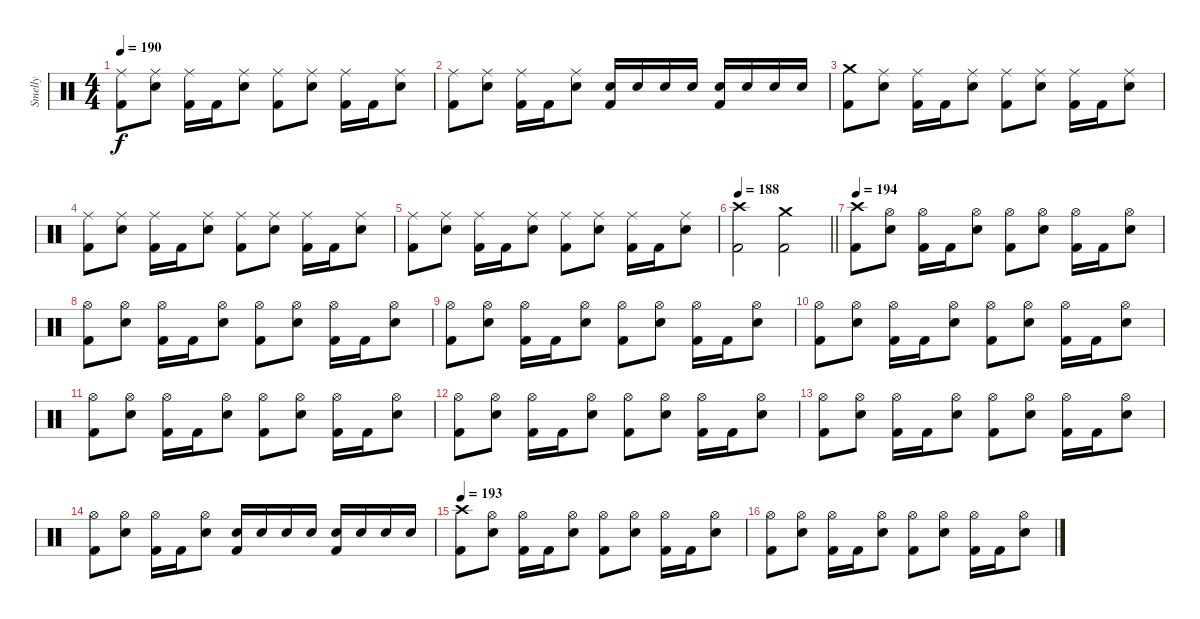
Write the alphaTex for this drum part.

\track ("Smelly" "Smelly") {instrument percussion}
\staff {score}
\articulation defaults
\ts (4 4)
\tempo 190
\clef neutral
\ks c
("Ride (middle)" "Kick (hit) 2").8{dy f} ("Ride (middle)" "Electric Snare (hit)").8 ("Ride (middle)" "Kick (hit) 2").16 "Kick (hit) 2".16 ("Ride (middle)" "Electric Snare (hit)").8 ("Ride (middle)" "Kick (hit) 2").8 ("Ride (middle)" "Electric Snare (hit)").8 ("Ride (middle)" "Kick (hit) 2").16 "Kick (hit) 2".16 ("Ride (middle)" "Electric Snare (hit)").8 |
("Ride (middle)" "Kick (hit) 2").8 ("Ride (middle)" "Electric Snare (hit)").8 ("Ride (middle)" "Kick (hit) 2").16 "Kick (hit) 2".16 ("Ride (middle)" "Electric Snare (hit)").8 ("Electric Snare (hit)" "Kick (hit) 2").16 "Electric Snare (hit)".16 "Electric Snare (hit)".16 "Electric Snare (hit)".16 ("Electric Snare (hit)" "Kick (hit) 2").16 "Electric Snare (hit)".16 "Electric Snare (hit)".16 "Electric Snare (hit)".16 |
("Crash medium (hit)" "Kick (hit) 2").8 ("Ride (middle)" "Electric Snare (hit)").8 ("Ride (middle)" "Kick (hit) 2").16 "Kick (hit) 2".16 ("Ride (middle)" "Electric Snare (hit)").8 ("Ride (middle)" "Kick (hit) 2").8 ("Ride (middle)" "Electric Snare (hit)").8 ("Ride (middle)" "Kick (hit) 2").16 "Kick (hit) 2".16 ("Ride (middle)" "Electric Snare (hit)").8 |
("Ride (middle)" "Kick (hit) 2").8 ("Ride (middle)" "Electric Snare (hit)").8 ("Ride (middle)" "Kick (hit) 2").16 "Kick (hit) 2".16 ("Ride (middle)" "Electric Snare (hit)").8 ("Ride (middle)" "Kick (hit) 2").8 ("Ride (middle)" "Electric Snare (hit)").8 ("Ride (middle)" "Kick (hit) 2").16 "Kick (hit) 2".16 ("Ride (middle)" "Electric Snare (hit)").8 |
("Ride (middle)" "Kick (hit) 2").8 ("Ride (middle)" "Electric Snare (hit)").8 ("Ride (middle)" "Kick (hit) 2").16 "Kick (hit) 2".16 ("Ride (middle)" "Electric Snare (hit)").8 ("Ride (middle)" "Kick (hit) 2").8 ("Ride (middle)" "Electric Snare (hit)").8 ("Ride (middle)" "Kick (hit) 2").16 "Kick (hit) 2".16 ("Ride (middle)" "Electric Snare (hit)").8 |
\tempo 188
\barLineRight lightlight
("Crash high (hit)" "Kick (hit) 2").2 ("Crash medium (hit)" "Kick (hit) 2").2 |
\section ("" "")
\tempo 194
("Crash high (hit)" "Kick (hit) 2").8 ("Hi-Hat (open)" "Electric Snare (hit)").8 ("Hi-Hat (open)" "Kick (hit) 2").16 "Kick (hit) 2".16 ("Hi-Hat (open)" "Electric Snare (hit)").8 ("Hi-Hat (open)" "Kick (hit) 2").8 ("Hi-Hat (open)" "Electric Snare (hit)").8 ("Hi-Hat (open)" "Kick (hit) 2").16 "Kick (hit) 2".16 ("Hi-Hat (open)" "Electric Snare (hit)").8 |
("Hi-Hat (open)" "Kick (hit) 2").8 ("Hi-Hat (open)" "Electric Snare (hit)").8 ("Hi-Hat (open)" "Kick (hit) 2").16 "Kick (hit) 2".16 ("Hi-Hat (open)" "Electric Snare (hit)").8 ("Hi-Hat (open)" "Kick (hit) 2").8 ("Hi-Hat (open)" "Electric Snare (hit)").8 ("Hi-Hat (open)" "Kick (hit) 2").16 "Kick (hit) 2".16 ("Hi-Hat (open)" "Electric Snare (hit)").8 |
("Hi-Hat (open)" "Kick (hit) 2").8 ("Hi-Hat (open)" "Electric Snare (hit)").8 ("Hi-Hat (open)" "Kick (hit) 2").16 "Kick (hit) 2".16 ("Hi-Hat (open)" "Electric Snare (hit)").8 ("Hi-Hat (open)" "Kick (hit) 2").8 ("Hi-Hat (open)" "Electric Snare (hit)").8 ("Hi-Hat (open)" "Kick (hit) 2").16 "Kick (hit) 2".16 ("Hi-Hat (open)" "Electric Snare (hit)").8 |
("Hi-Hat (open)" "Kick (hit) 2").8 ("Hi-Hat (open)" "Electric Snare (hit)").8 ("Hi-Hat (open)" "Kick (hit) 2").16 "Kick (hit) 2".16 ("Hi-Hat (open)" "Electric Snare (hit)").8 ("Hi-Hat (open)" "Kick (hit) 2").8 ("Hi-Hat (open)" "Electric Snare (hit)").8 ("Hi-Hat (open)" "Kick (hit) 2").16 "Kick (hit) 2".16 ("Hi-Hat (open)" "Electric Snare (hit)").8 |
("Hi-Hat (open)" "Kick (hit) 2").8 ("Hi-Hat (open)" "Electric Snare (hit)").8 ("Hi-Hat (open)" "Kick (hit) 2").16 "Kick (hit) 2".16 ("Hi-Hat (open)" "Electric Snare (hit)").8 ("Hi-Hat (open)" "Kick (hit) 2").8 ("Hi-Hat (open)" "Electric Snare (hit)").8 ("Hi-Hat (open)" "Kick (hit) 2").16 "Kick (hit) 2".16 ("Hi-Hat (open)" "Electric Snare (hit)").8 |
("Hi-Hat (open)" "Kick (hit) 2").8 ("Hi-Hat (open)" "Electric Snare (hit)").8 ("Hi-Hat (open)" "Kick (hit) 2").16 "Kick (hit) 2".16 ("Hi-Hat (open)" "Electric Snare (hit)").8 ("Hi-Hat (open)" "Kick (hit) 2").8 ("Hi-Hat (open)" "Electric Snare (hit)").8 ("Hi-Hat (open)" "Kick (hit) 2").16 "Kick (hit) 2".16 ("Hi-Hat (open)" "Electric Snare (hit)").8 |
("Hi-Hat (open)" "Kick (hit) 2").8 ("Hi-Hat (open)" "Electric Snare (hit)").8 ("Hi-Hat (open)" "Kick (hit) 2").16 "Kick (hit) 2".16 ("Hi-Hat (open)" "Electric Snare (hit)").8 ("Hi-Hat (open)" "Kick (hit) 2").8 ("Hi-Hat (open)" "Electric Snare (hit)").8 ("Hi-Hat (open)" "Kick (hit) 2").16 "Kick (hit) 2".16 ("Hi-Hat (open)" "Electric Snare (hit)").8 |
("Hi-Hat (open)" "Kick (hit) 2").8 ("Hi-Hat (open)" "Electric Snare (hit)").8 ("Hi-Hat (open)" "Kick (hit) 2").16 "Kick (hit) 2".16 ("Hi-Hat (open)" "Electric Snare (hit)").8 ("Electric Snare (hit)" "Kick (hit) 2").16 "Electric Snare (hit)".16 "Electric Snare (hit)".16 "Electric Snare (hit)".16 ("Electric Snare (hit)" "Kick (hit) 2").16 "Electric Snare (hit)".16 "Electric Snare (hit)".16 "Electric Snare (hit)".16 |
\tempo 193
("Crash high (hit)" "Kick (hit) 2").8 ("Hi-Hat (open)" "Electric Snare (hit)").8 ("Hi-Hat (open)" "Kick (hit) 2").16 "Kick (hit) 2".16 ("Hi-Hat (open)" "Electric Snare (hit)").8 ("Hi-Hat (open)" "Kick (hit) 2").8 ("Hi-Hat (open)" "Electric Snare (hit)").8 ("Hi-Hat (open)" "Kick (hit) 2").16 "Kick (hit) 2".16 ("Hi-Hat (open)" "Electric Snare (hit)").8 |
("Hi-Hat (open)" "Kick (hit) 2").8 ("Hi-Hat (open)" "Electric Snare (hit)").8 ("Hi-Hat (open)" "Kick (hit) 2").16 "Kick (hit) 2".16 ("Hi-Hat (open)" "Electric Snare (hit)").8 ("Hi-Hat (open)" "Kick (hit) 2").8 ("Hi-Hat (open)" "Electric Snare (hit)").8 ("Hi-Hat (open)" "Kick (hit) 2").16 "Kick (hit) 2".16 ("Hi-Hat (open)" "Electric Snare (hit)").8
